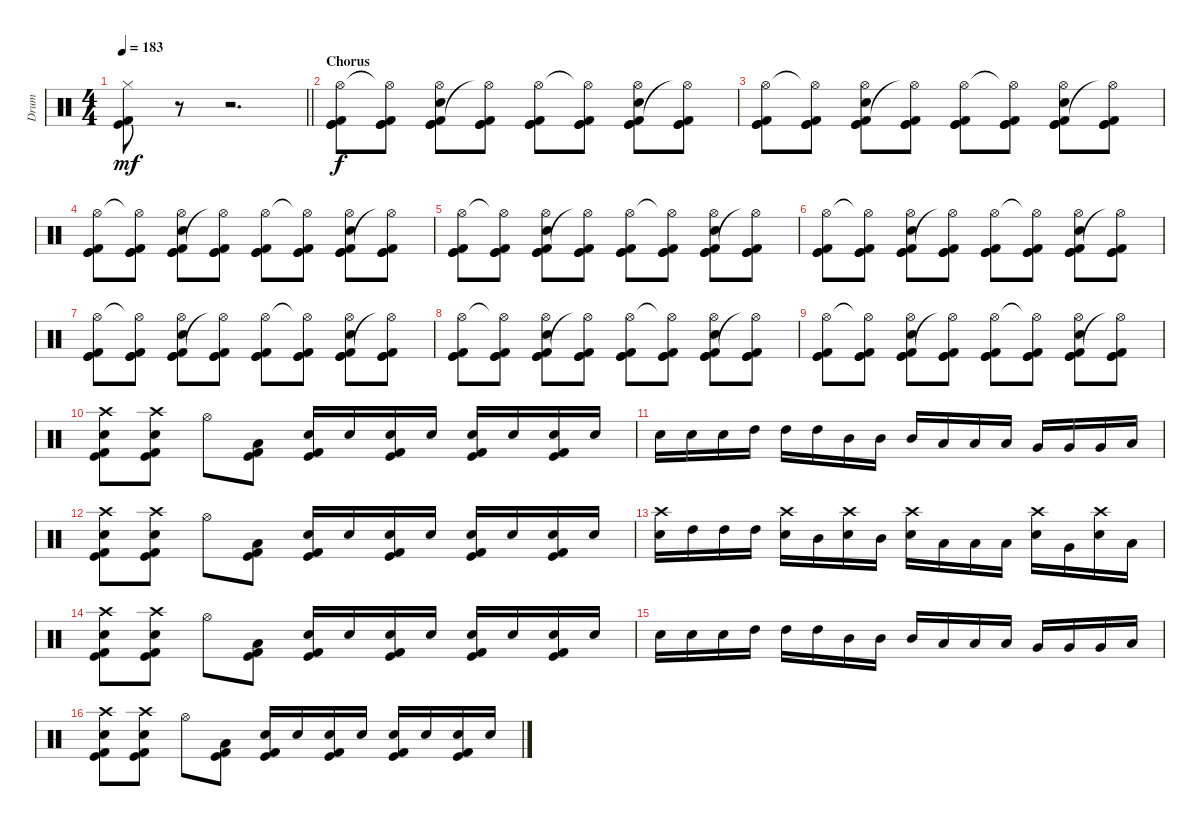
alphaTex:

\track ("Drum" "Drum") {instrument percussion}
\staff {score}
\articulation defaults
\ts (4 4)
\tempo 183
\clef neutral
\barLineRight lightlight
\ks c
("Hi-Hat (closed)" "Kick (hit)" "Kick (hit) 2").8{dy mf} r.8 r.2{d} |
\section ("" "Chorus")
("Kick (hit) 2" "Hi-Hat (open)" "Kick (hit)" "Kick (hit)").8{dy f} ("Kick (hit) 2" "Hi-Hat (open)"{t} "Kick (hit)" "Kick (hit)").8 ("Electric Snare (hit)" "Kick (hit) 2" "Hi-Hat (open)" "Kick (hit)" "Kick (hit)").8 ("Kick (hit) 2" "Hi-Hat (open)"{t} "Kick (hit)" "Kick (hit)").8 ("Kick (hit) 2" "Hi-Hat (open)" "Kick (hit)" "Kick (hit)").8 ("Kick (hit) 2" "Hi-Hat (open)"{t} "Kick (hit)" "Kick (hit)").8 ("Electric Snare (hit)" "Kick (hit) 2" "Hi-Hat (open)" "Kick (hit)" "Kick (hit)").8 ("Kick (hit) 2" "Hi-Hat (open)"{t} "Kick (hit)" "Kick (hit)").8 |
("Kick (hit) 2" "Hi-Hat (open)" "Kick (hit)" "Kick (hit)").8 ("Kick (hit) 2" "Hi-Hat (open)"{t} "Kick (hit)" "Kick (hit)").8 ("Electric Snare (hit)" "Kick (hit) 2" "Hi-Hat (open)" "Kick (hit)" "Kick (hit)").8 ("Kick (hit) 2" "Hi-Hat (open)"{t} "Kick (hit)" "Kick (hit)").8 ("Kick (hit) 2" "Hi-Hat (open)" "Kick (hit)" "Kick (hit)").8 ("Kick (hit) 2" "Hi-Hat (open)"{t} "Kick (hit)" "Kick (hit)").8 ("Electric Snare (hit)" "Kick (hit) 2" "Hi-Hat (open)" "Kick (hit)" "Kick (hit)").8 ("Kick (hit) 2" "Hi-Hat (open)"{t} "Kick (hit)" "Kick (hit)").8 |
("Kick (hit) 2" "Hi-Hat (open)" "Kick (hit)" "Kick (hit)").8 ("Kick (hit) 2" "Hi-Hat (open)"{t} "Kick (hit)" "Kick (hit)").8 ("Electric Snare (hit)" "Kick (hit) 2" "Hi-Hat (open)" "Kick (hit)" "Kick (hit)").8 ("Kick (hit) 2" "Hi-Hat (open)"{t} "Kick (hit)" "Kick (hit)").8 ("Kick (hit) 2" "Hi-Hat (open)" "Kick (hit)" "Kick (hit)").8 ("Kick (hit) 2" "Hi-Hat (open)"{t} "Kick (hit)" "Kick (hit)").8 ("Electric Snare (hit)" "Kick (hit) 2" "Hi-Hat (open)" "Kick (hit)" "Kick (hit)").8 ("Kick (hit) 2" "Hi-Hat (open)"{t} "Kick (hit)" "Kick (hit)").8 |
("Kick (hit) 2" "Hi-Hat (open)" "Kick (hit)" "Kick (hit)").8 ("Kick (hit) 2" "Hi-Hat (open)"{t} "Kick (hit)" "Kick (hit)").8 ("Electric Snare (hit)" "Kick (hit) 2" "Hi-Hat (open)" "Kick (hit)" "Kick (hit)").8 ("Kick (hit) 2" "Hi-Hat (open)"{t} "Kick (hit)" "Kick (hit)").8 ("Kick (hit) 2" "Hi-Hat (open)" "Kick (hit)" "Kick (hit)").8 ("Kick (hit) 2" "Hi-Hat (open)"{t} "Kick (hit)" "Kick (hit)").8 ("Electric Snare (hit)" "Kick (hit) 2" "Hi-Hat (open)" "Kick (hit)" "Kick (hit)").8 ("Kick (hit) 2" "Hi-Hat (open)"{t} "Kick (hit)" "Kick (hit)").8 |
("Kick (hit) 2" "Hi-Hat (open)" "Kick (hit)" "Kick (hit)").8 ("Kick (hit) 2" "Hi-Hat (open)"{t} "Kick (hit)" "Kick (hit)").8 ("Electric Snare (hit)" "Kick (hit) 2" "Hi-Hat (open)" "Kick (hit)" "Kick (hit)").8 ("Kick (hit) 2" "Hi-Hat (open)"{t} "Kick (hit)" "Kick (hit)").8 ("Kick (hit) 2" "Hi-Hat (open)" "Kick (hit)" "Kick (hit)").8 ("Kick (hit) 2" "Hi-Hat (open)"{t} "Kick (hit)" "Kick (hit)").8 ("Electric Snare (hit)" "Kick (hit) 2" "Hi-Hat (open)" "Kick (hit)" "Kick (hit)").8 ("Kick (hit) 2" "Hi-Hat (open)"{t} "Kick (hit)" "Kick (hit)").8 |
("Kick (hit) 2" "Hi-Hat (open)" "Kick (hit)" "Kick (hit)").8 ("Kick (hit) 2" "Hi-Hat (open)"{t} "Kick (hit)" "Kick (hit)").8 ("Electric Snare (hit)" "Kick (hit) 2" "Hi-Hat (open)" "Kick (hit)" "Kick (hit)").8 ("Kick (hit) 2" "Hi-Hat (open)"{t} "Kick (hit)" "Kick (hit)").8 ("Kick (hit) 2" "Hi-Hat (open)" "Kick (hit)" "Kick (hit)").8 ("Kick (hit) 2" "Hi-Hat (open)"{t} "Kick (hit)" "Kick (hit)").8 ("Electric Snare (hit)" "Kick (hit) 2" "Hi-Hat (open)" "Kick (hit)" "Kick (hit)").8 ("Kick (hit) 2" "Hi-Hat (open)"{t} "Kick (hit)" "Kick (hit)").8 |
("Kick (hit) 2" "Hi-Hat (open)" "Kick (hit)" "Kick (hit)").8 ("Kick (hit) 2" "Hi-Hat (open)"{t} "Kick (hit)" "Kick (hit)").8 ("Electric Snare (hit)" "Kick (hit) 2" "Hi-Hat (open)" "Kick (hit)" "Kick (hit)").8 ("Kick (hit) 2" "Hi-Hat (open)"{t} "Kick (hit)" "Kick (hit)").8 ("Kick (hit) 2" "Hi-Hat (open)" "Kick (hit)" "Kick (hit)").8 ("Kick (hit) 2" "Hi-Hat (open)"{t} "Kick (hit)" "Kick (hit)").8 ("Electric Snare (hit)" "Kick (hit) 2" "Hi-Hat (open)" "Kick (hit)" "Kick (hit)").8 ("Kick (hit) 2" "Hi-Hat (open)"{t} "Kick (hit)" "Kick (hit)").8 |
("Kick (hit) 2" "Hi-Hat (open)" "Kick (hit)" "Kick (hit)").8 ("Kick (hit) 2" "Hi-Hat (open)"{t} "Kick (hit)" "Kick (hit)").8 ("Electric Snare (hit)" "Kick (hit) 2" "Hi-Hat (open)" "Kick (hit)" "Kick (hit)").8 ("Kick (hit) 2" "Hi-Hat (open)"{t} "Kick (hit)" "Kick (hit)").8 ("Kick (hit) 2" "Hi-Hat (open)" "Kick (hit)" "Kick (hit)").8 ("Kick (hit) 2" "Hi-Hat (open)"{t} "Kick (hit)" "Kick (hit)").8 ("Electric Snare (hit)" "Kick (hit) 2" "Hi-Hat (open)" "Kick (hit)" "Kick (hit)").8 ("Kick (hit) 2" "Hi-Hat (open)"{t} "Kick (hit)" "Kick (hit)").8 |
("Crash high (hit)" "Electric Snare (hit)" "Kick (hit) 2" "Kick (hit)").8 ("Crash high (hit)" "Electric Snare (hit)" "Kick (hit) 2" "Kick (hit)").8 "Hi-Hat (open)".8 ("Low Floor Tom (hit)" "Kick (hit)" "Kick (hit) 2").8 ("Kick (hit) 2" "Kick (hit)" "Electric Snare (hit)").16 "Electric Snare (hit)".16 ("Kick (hit) 2" "Kick (hit)" "Electric Snare (hit)").16 "Electric Snare (hit)".16 ("Kick (hit) 2" "Kick (hit)" "Electric Snare (hit)").16 "Electric Snare (hit)".16 ("Kick (hit) 2" "Kick (hit)" "Electric Snare (hit)").16 "Electric Snare (hit)".16 |
"Electric Snare (hit)".16 "Electric Snare (hit)".16 "Electric Snare (hit)".16 "High Tom (hit)".16 "High Tom (hit)".16 "High Tom (hit)".16 "Mid Tom (hit)".16 "Mid Tom (hit)".16 "Mid Tom (hit)".16 "Low Tom (hit)".16 "Low Tom (hit)".16 "Low Tom (hit)".16 "Very Low Tom (hit)".16 "Very Low Tom (hit)".16 "Very Low Tom (hit)".16 "Low Floor Tom (hit)".16 |
("Crash high (hit)" "Electric Snare (hit)" "Kick (hit) 2" "Kick (hit)").8 ("Crash high (hit)" "Electric Snare (hit)" "Kick (hit) 2" "Kick (hit)").8 "Hi-Hat (open)".8 ("Low Floor Tom (hit)" "Kick (hit)" "Kick (hit) 2").8 ("Kick (hit) 2" "Kick (hit)" "Electric Snare (hit)").16 "Electric Snare (hit)".16 ("Kick (hit) 2" "Kick (hit)" "Electric Snare (hit)").16 "Electric Snare (hit)".16 ("Kick (hit) 2" "Kick (hit)" "Electric Snare (hit)").16 "Electric Snare (hit)".16 ("Kick (hit) 2" "Kick (hit)" "Electric Snare (hit)").16 "Electric Snare (hit)".16 |
("Crash high (hit)" "Electric Snare (hit)").16 "High Tom (hit)".16 "High Tom (hit)".16 "High Tom (hit)".16 ("Crash high (hit)" "Electric Snare (hit)").16 "Mid Tom (hit)".16 ("Crash high (hit)" "Electric Snare (hit)").16 "Mid Tom (hit)".16 ("Crash high (hit)" "Electric Snare (hit)").16 "Low Tom (hit)".16 "Low Tom (hit)".16 "Low Tom (hit)".16 ("Crash high (hit)" "Electric Snare (hit)").16 "Very Low Tom (hit)".16 ("Crash high (hit)" "Electric Snare (hit)").16 "Low Floor Tom (hit)".16 |
("Crash high (hit)" "Electric Snare (hit)" "Kick (hit) 2" "Kick (hit)").8 ("Crash high (hit)" "Electric Snare (hit)" "Kick (hit) 2" "Kick (hit)").8 "Hi-Hat (open)".8 ("Low Floor Tom (hit)" "Kick (hit)" "Kick (hit) 2").8 ("Kick (hit) 2" "Kick (hit)" "Electric Snare (hit)").16 "Electric Snare (hit)".16 ("Kick (hit) 2" "Kick (hit)" "Electric Snare (hit)").16 "Electric Snare (hit)".16 ("Kick (hit) 2" "Kick (hit)" "Electric Snare (hit)").16 "Electric Snare (hit)".16 ("Kick (hit) 2" "Kick (hit)" "Electric Snare (hit)").16 "Electric Snare (hit)".16 |
"Electric Snare (hit)".16 "Electric Snare (hit)".16 "Electric Snare (hit)".16 "High Tom (hit)".16 "High Tom (hit)".16 "High Tom (hit)".16 "Mid Tom (hit)".16 "Mid Tom (hit)".16 "Mid Tom (hit)".16 "Low Tom (hit)".16 "Low Tom (hit)".16 "Low Tom (hit)".16 "Very Low Tom (hit)".16 "Very Low Tom (hit)".16 "Very Low Tom (hit)".16 "Low Floor Tom (hit)".16 |
("Crash high (hit)" "Electric Snare (hit)" "Kick (hit) 2" "Kick (hit)").8 ("Crash high (hit)" "Electric Snare (hit)" "Kick (hit) 2" "Kick (hit)").8 "Hi-Hat (open)".8 ("Low Floor Tom (hit)" "Kick (hit)" "Kick (hit) 2").8 ("Kick (hit) 2" "Kick (hit)" "Electric Snare (hit)").16 "Electric Snare (hit)".16 ("Kick (hit) 2" "Kick (hit)" "Electric Snare (hit)").16 "Electric Snare (hit)".16 ("Kick (hit) 2" "Kick (hit)" "Electric Snare (hit)").16 "Electric Snare (hit)".16 ("Kick (hit) 2" "Kick (hit)" "Electric Snare (hit)").16 "Electric Snare (hit)".16
